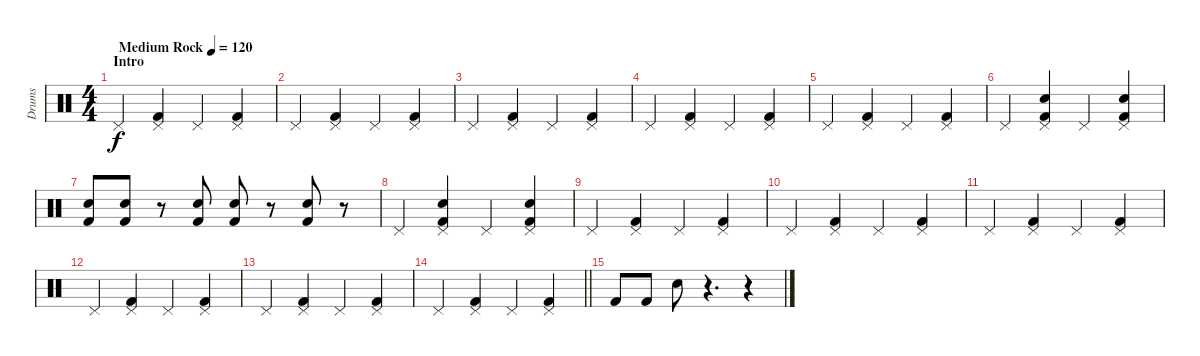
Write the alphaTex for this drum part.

\track ("Drums" "Drums") {instrument percussion}
\staff {score}
\articulation defaults
\ts (4 4)
\section ("" "Intro")
\tempo (120 "Medium Rock")
\clef neutral
\ks c "Pedal Hi-Hat (hit)".4{dy f}
("Pedal Hi-Hat (hit)" "Kick (hit) 2").4 "Pedal Hi-Hat (hit)".4 ("Pedal Hi-Hat (hit)" "Kick (hit) 2").4 |
"Pedal Hi-Hat (hit)".4 ("Pedal Hi-Hat (hit)" "Kick (hit) 2").4 "Pedal Hi-Hat (hit)".4 ("Pedal Hi-Hat (hit)" "Kick (hit) 2").4 |
"Pedal Hi-Hat (hit)".4 ("Pedal Hi-Hat (hit)" "Kick (hit) 2").4 "Pedal Hi-Hat (hit)".4 ("Pedal Hi-Hat (hit)" "Kick (hit) 2").4 |
"Pedal Hi-Hat (hit)".4 ("Pedal Hi-Hat (hit)" "Kick (hit) 2").4 "Pedal Hi-Hat (hit)".4 ("Pedal Hi-Hat (hit)" "Kick (hit) 2").4 |
"Pedal Hi-Hat (hit)".4 ("Pedal Hi-Hat (hit)" "Kick (hit) 2").4 "Pedal Hi-Hat (hit)".4 ("Pedal Hi-Hat (hit)" "Kick (hit) 2").4 |
"Pedal Hi-Hat (hit)".4 ("Pedal Hi-Hat (hit)" "Kick (hit) 2" "Snare (hit) 2").4 "Pedal Hi-Hat (hit)".4 ("Pedal Hi-Hat (hit)" "Kick (hit) 2" "Snare (hit) 2").4 |
("Kick (hit) 2" "Snare (hit) 2").8 ("Kick (hit) 2" "Snare (hit) 2").8 r.8 ("Kick (hit) 2" "Snare (hit) 2").8 ("Kick (hit) 2" "Snare (hit) 2").8 r.8 ("Kick (hit) 2" "Snare (hit) 2").8 r.8 |
"Pedal Hi-Hat (hit)".4 ("Pedal Hi-Hat (hit)" "Kick (hit) 2" "Snare (hit) 2").4 "Pedal Hi-Hat (hit)".4 ("Pedal Hi-Hat (hit)" "Kick (hit) 2" "Snare (hit) 2").4 |
"Pedal Hi-Hat (hit)".4 ("Pedal Hi-Hat (hit)" "Kick (hit) 2").4 "Pedal Hi-Hat (hit)".4 ("Pedal Hi-Hat (hit)" "Kick (hit) 2").4 |
"Pedal Hi-Hat (hit)".4 ("Pedal Hi-Hat (hit)" "Kick (hit) 2").4 "Pedal Hi-Hat (hit)".4 ("Pedal Hi-Hat (hit)" "Kick (hit) 2").4 |
"Pedal Hi-Hat (hit)".4 ("Pedal Hi-Hat (hit)" "Kick (hit) 2").4 "Pedal Hi-Hat (hit)".4 ("Pedal Hi-Hat (hit)" "Kick (hit) 2").4 |
"Pedal Hi-Hat (hit)".4 ("Pedal Hi-Hat (hit)" "Kick (hit) 2").4 "Pedal Hi-Hat (hit)".4 ("Pedal Hi-Hat (hit)" "Kick (hit) 2").4 |
"Pedal Hi-Hat (hit)".4 ("Pedal Hi-Hat (hit)" "Kick (hit) 2").4 "Pedal Hi-Hat (hit)".4 ("Pedal Hi-Hat (hit)" "Kick (hit) 2").4 |
\barLineRight lightlight "Pedal Hi-Hat (hit)".4
("Pedal Hi-Hat (hit)" "Kick (hit) 2").4 "Pedal Hi-Hat (hit)".4 ("Pedal Hi-Hat (hit)" "Kick (hit) 2").4 |
\section ("" "")
"Kick (hit) 2".8 "Kick (hit) 2".8 "Snare (hit) 2".8 r.4{d} r.4
